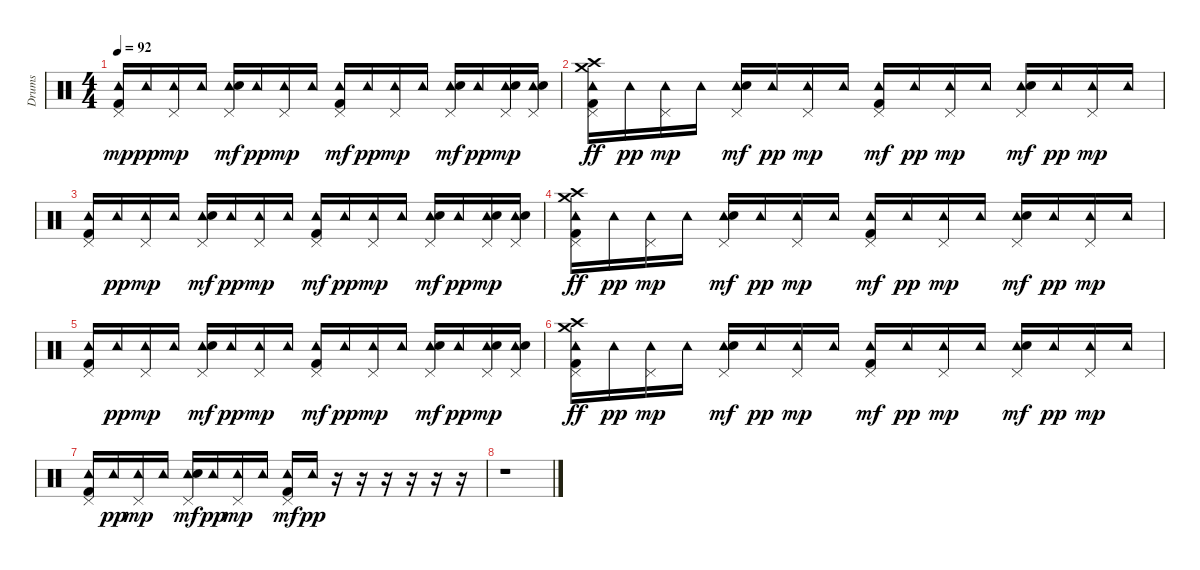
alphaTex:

\track ("Drums" "Drums") {instrument percussion}
\staff {score}
\articulation defaults
\ts (4 4)
\tempo 92
\clef neutral
\ks c
("Pedal Hi-Hat (hit)" "Tambourine (hit)" "Kick (hit) 2").16{dy mp} "Tambourine (hit)".16{dy pp} ("Pedal Hi-Hat (hit)" "Tambourine (hit)").16{dy mp} "Tambourine (hit)".16 ("Pedal Hi-Hat (hit)" "Tambourine (hit)" "Electric Snare (hit)").16{dy mf} "Tambourine (hit)".16{dy pp} ("Pedal Hi-Hat (hit)" "Tambourine (hit)").16{dy mp} "Tambourine (hit)".16 ("Pedal Hi-Hat (hit)" "Tambourine (hit)" "Kick (hit) 2").16{dy mf} "Tambourine (hit)".16{dy pp} ("Pedal Hi-Hat (hit)" "Tambourine (hit)").16{dy mp} "Tambourine (hit)".16 ("Pedal Hi-Hat (hit)" "Tambourine (hit)" "Electric Snare (hit)").16{dy mf} "Tambourine (hit)".16{dy pp} ("Pedal Hi-Hat (hit)" "Tambourine (hit)" "Electric Snare (hit)").16{dy mp} ("Pedal Hi-Hat (hit)" "Tambourine (hit)" "Electric Snare (hit)").16 |
("Pedal Hi-Hat (hit)" "Tambourine (hit)" "Crash medium (hit)" "Crash high (hit)" "Kick (hit) 2").16{dy ff} "Tambourine (hit)".16{dy pp} ("Pedal Hi-Hat (hit)" "Tambourine (hit)").16{dy mp} "Tambourine (hit)".16 ("Pedal Hi-Hat (hit)" "Tambourine (hit)" "Electric Snare (hit)").16{dy mf} "Tambourine (hit)".16{dy pp} ("Pedal Hi-Hat (hit)" "Tambourine (hit)").16{dy mp} "Tambourine (hit)".16 ("Pedal Hi-Hat (hit)" "Tambourine (hit)" "Kick (hit) 2").16{dy mf} "Tambourine (hit)".16{dy pp} ("Pedal Hi-Hat (hit)" "Tambourine (hit)").16{dy mp} "Tambourine (hit)".16 ("Pedal Hi-Hat (hit)" "Tambourine (hit)" "Electric Snare (hit)").16{dy mf} "Tambourine (hit)".16{dy pp} ("Pedal Hi-Hat (hit)" "Tambourine (hit)").16{dy mp} "Tambourine (hit)".16 |
("Pedal Hi-Hat (hit)" "Tambourine (hit)" "Kick (hit) 2").16 "Tambourine (hit)".16{dy pp} ("Pedal Hi-Hat (hit)" "Tambourine (hit)").16{dy mp} "Tambourine (hit)".16 ("Pedal Hi-Hat (hit)" "Tambourine (hit)" "Electric Snare (hit)").16{dy mf} "Tambourine (hit)".16{dy pp} ("Pedal Hi-Hat (hit)" "Tambourine (hit)").16{dy mp} "Tambourine (hit)".16 ("Pedal Hi-Hat (hit)" "Tambourine (hit)" "Kick (hit) 2").16{dy mf} "Tambourine (hit)".16{dy pp} ("Pedal Hi-Hat (hit)" "Tambourine (hit)").16{dy mp} "Tambourine (hit)".16 ("Pedal Hi-Hat (hit)" "Tambourine (hit)" "Electric Snare (hit)").16{dy mf} "Tambourine (hit)".16{dy pp} ("Pedal Hi-Hat (hit)" "Tambourine (hit)" "Electric Snare (hit)").16{dy mp} ("Pedal Hi-Hat (hit)" "Tambourine (hit)" "Electric Snare (hit)").16 |
("Pedal Hi-Hat (hit)" "Tambourine (hit)" "Crash medium (hit)" "Crash high (hit)" "Kick (hit) 2").16{dy ff} "Tambourine (hit)".16{dy pp} ("Pedal Hi-Hat (hit)" "Tambourine (hit)").16{dy mp} "Tambourine (hit)".16 ("Pedal Hi-Hat (hit)" "Tambourine (hit)" "Electric Snare (hit)").16{dy mf} "Tambourine (hit)".16{dy pp} ("Pedal Hi-Hat (hit)" "Tambourine (hit)").16{dy mp} "Tambourine (hit)".16 ("Pedal Hi-Hat (hit)" "Tambourine (hit)" "Kick (hit) 2").16{dy mf} "Tambourine (hit)".16{dy pp} ("Pedal Hi-Hat (hit)" "Tambourine (hit)").16{dy mp} "Tambourine (hit)".16 ("Pedal Hi-Hat (hit)" "Tambourine (hit)" "Electric Snare (hit)").16{dy mf} "Tambourine (hit)".16{dy pp} ("Pedal Hi-Hat (hit)" "Tambourine (hit)").16{dy mp} "Tambourine (hit)".16 |
("Pedal Hi-Hat (hit)" "Tambourine (hit)" "Kick (hit) 2").16 "Tambourine (hit)".16{dy pp} ("Pedal Hi-Hat (hit)" "Tambourine (hit)").16{dy mp} "Tambourine (hit)".16 ("Pedal Hi-Hat (hit)" "Tambourine (hit)" "Electric Snare (hit)").16{dy mf} "Tambourine (hit)".16{dy pp} ("Pedal Hi-Hat (hit)" "Tambourine (hit)").16{dy mp} "Tambourine (hit)".16 ("Pedal Hi-Hat (hit)" "Tambourine (hit)" "Kick (hit) 2").16{dy mf} "Tambourine (hit)".16{dy pp} ("Pedal Hi-Hat (hit)" "Tambourine (hit)").16{dy mp} "Tambourine (hit)".16 ("Pedal Hi-Hat (hit)" "Tambourine (hit)" "Electric Snare (hit)").16{dy mf} "Tambourine (hit)".16{dy pp} ("Pedal Hi-Hat (hit)" "Tambourine (hit)" "Electric Snare (hit)").16{dy mp} ("Pedal Hi-Hat (hit)" "Tambourine (hit)" "Electric Snare (hit)").16 |
("Pedal Hi-Hat (hit)" "Tambourine (hit)" "Crash medium (hit)" "Crash high (hit)" "Kick (hit) 2").16{dy ff} "Tambourine (hit)".16{dy pp} ("Pedal Hi-Hat (hit)" "Tambourine (hit)").16{dy mp} "Tambourine (hit)".16 ("Pedal Hi-Hat (hit)" "Tambourine (hit)" "Electric Snare (hit)").16{dy mf} "Tambourine (hit)".16{dy pp} ("Pedal Hi-Hat (hit)" "Tambourine (hit)").16{dy mp} "Tambourine (hit)".16 ("Pedal Hi-Hat (hit)" "Tambourine (hit)" "Kick (hit) 2").16{dy mf} "Tambourine (hit)".16{dy pp} ("Pedal Hi-Hat (hit)" "Tambourine (hit)").16{dy mp} "Tambourine (hit)".16 ("Pedal Hi-Hat (hit)" "Tambourine (hit)" "Electric Snare (hit)").16{dy mf} "Tambourine (hit)".16{dy pp} ("Pedal Hi-Hat (hit)" "Tambourine (hit)").16{dy mp} "Tambourine (hit)".16 |
("Pedal Hi-Hat (hit)" "Tambourine (hit)" "Kick (hit) 2").16 "Tambourine (hit)".16{dy pp} ("Pedal Hi-Hat (hit)" "Tambourine (hit)").16{dy mp} "Tambourine (hit)".16 ("Pedal Hi-Hat (hit)" "Tambourine (hit)" "Electric Snare (hit)").16{dy mf} "Tambourine (hit)".16{dy pp} ("Pedal Hi-Hat (hit)" "Tambourine (hit)").16{dy mp} "Tambourine (hit)".16 ("Pedal Hi-Hat (hit)" "Tambourine (hit)" "Kick (hit) 2").16{dy mf} "Tambourine (hit)".16{dy pp} r.16 r.16 r.16 r.16 r.16 r.16 |
r.1
